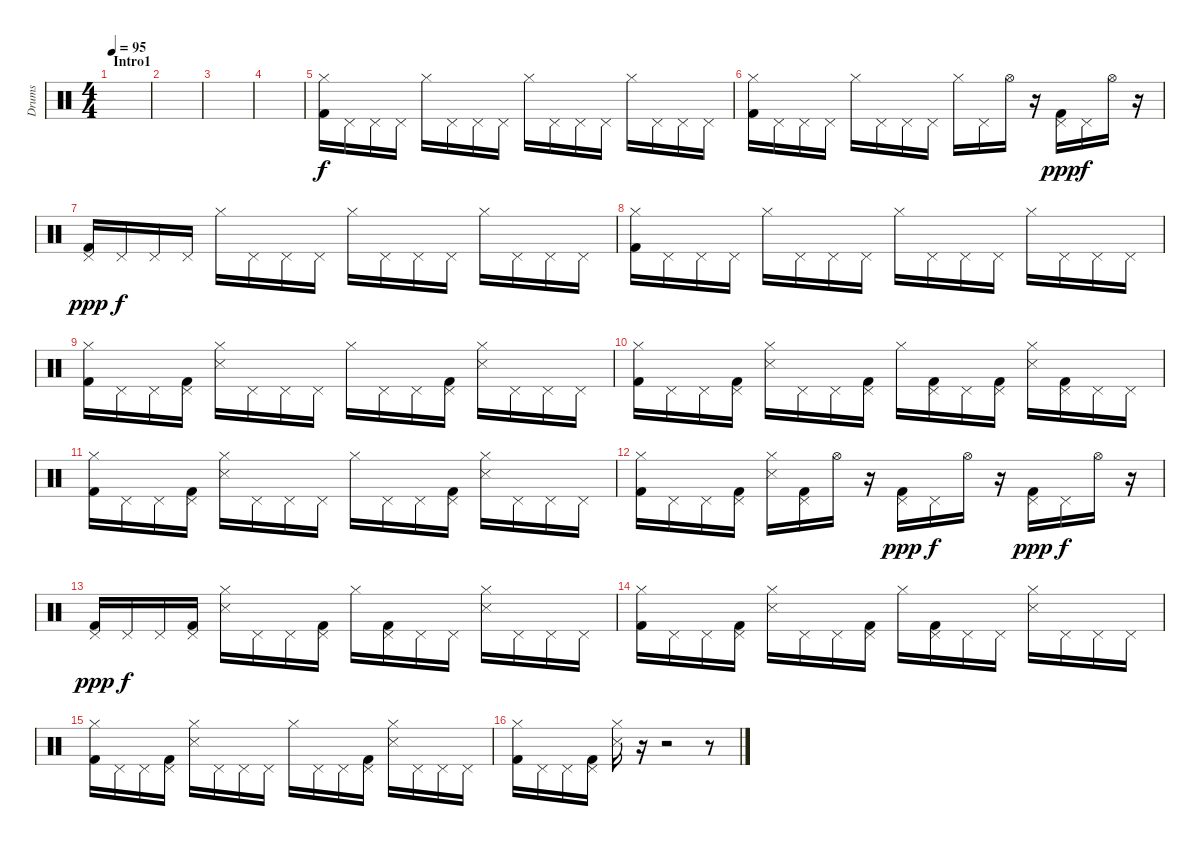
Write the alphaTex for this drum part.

\track ("Drums" "Drums") {instrument percussion}
\staff {score}
\articulation defaults
\ts (4 4)
\section ("" "Intro1")
\tempo 95
\clef neutral
\ks c
|
|
|
|
("Hi-Hat (closed)" "Kick (hit) 2").16 "Pedal Hi-Hat (hit)".16 "Pedal Hi-Hat (hit)".16 "Pedal Hi-Hat (hit)".16 "Hi-Hat (closed)".16 "Pedal Hi-Hat (hit)".16 "Pedal Hi-Hat (hit)".16 "Pedal Hi-Hat (hit)".16 "Hi-Hat (closed)".16 "Pedal Hi-Hat (hit)".16 "Pedal Hi-Hat (hit)".16 "Pedal Hi-Hat (hit)".16 "Hi-Hat (closed)".16 "Pedal Hi-Hat (hit)".16 "Pedal Hi-Hat (hit)".16 "Pedal Hi-Hat (hit)".16 |
("Hi-Hat (closed)" "Kick (hit) 2").16 "Pedal Hi-Hat (hit)".16 "Pedal Hi-Hat (hit)".16 "Pedal Hi-Hat (hit)".16 "Hi-Hat (closed)".16 "Pedal Hi-Hat (hit)".16 "Pedal Hi-Hat (hit)".16 "Pedal Hi-Hat (hit)".16 "Hi-Hat (closed)".16 "Pedal Hi-Hat (hit)".16 "Hi-Hat (open)".16 r.16 ("Pedal Hi-Hat (hit)" "Kick (hit) 2").16{dy ppp} "Pedal Hi-Hat (hit)".16{dy f} "Hi-Hat (open)".16 r.16 |
("Pedal Hi-Hat (hit)" "Kick (hit) 2").16{dy ppp} "Pedal Hi-Hat (hit)".16{dy f} "Pedal Hi-Hat (hit)".16 "Pedal Hi-Hat (hit)".16 "Hi-Hat (closed)".16 "Pedal Hi-Hat (hit)".16 "Pedal Hi-Hat (hit)".16 "Pedal Hi-Hat (hit)".16 "Hi-Hat (closed)".16 "Pedal Hi-Hat (hit)".16 "Pedal Hi-Hat (hit)".16 "Pedal Hi-Hat (hit)".16 "Hi-Hat (closed)".16 "Pedal Hi-Hat (hit)".16 "Pedal Hi-Hat (hit)".16 "Pedal Hi-Hat (hit)".16 |
("Hi-Hat (closed)" "Kick (hit) 2").16 "Pedal Hi-Hat (hit)".16 "Pedal Hi-Hat (hit)".16 "Pedal Hi-Hat (hit)".16 "Hi-Hat (closed)".16 "Pedal Hi-Hat (hit)".16 "Pedal Hi-Hat (hit)".16 "Pedal Hi-Hat (hit)".16 "Hi-Hat (closed)".16 "Pedal Hi-Hat (hit)".16 "Pedal Hi-Hat (hit)".16 "Pedal Hi-Hat (hit)".16 "Hi-Hat (closed)".16 "Pedal Hi-Hat (hit)".16 "Pedal Hi-Hat (hit)".16 "Pedal Hi-Hat (hit)".16 |
("Hi-Hat (closed)" "Kick (hit) 2").16 "Pedal Hi-Hat (hit)".16 "Pedal Hi-Hat (hit)".16 ("Pedal Hi-Hat (hit)" "Kick (hit) 2").16 ("Hi-Hat (closed)" "Snare (side stick) 3").16 "Pedal Hi-Hat (hit)".16 "Pedal Hi-Hat (hit)".16 "Pedal Hi-Hat (hit)".16 "Hi-Hat (closed)".16 "Pedal Hi-Hat (hit)".16 "Pedal Hi-Hat (hit)".16 ("Pedal Hi-Hat (hit)" "Kick (hit) 2").16 ("Hi-Hat (closed)" "Snare (side stick) 3").16 "Pedal Hi-Hat (hit)".16 "Pedal Hi-Hat (hit)".16 "Pedal Hi-Hat (hit)".16 |
("Hi-Hat (closed)" "Kick (hit) 2").16 "Pedal Hi-Hat (hit)".16 "Pedal Hi-Hat (hit)".16 ("Pedal Hi-Hat (hit)" "Kick (hit) 2").16 ("Hi-Hat (closed)" "Snare (side stick) 3").16 "Pedal Hi-Hat (hit)".16 "Pedal Hi-Hat (hit)".16 ("Pedal Hi-Hat (hit)" "Kick (hit) 2").16 "Hi-Hat (closed)".16 ("Pedal Hi-Hat (hit)" "Kick (hit) 2").16 "Pedal Hi-Hat (hit)".16 ("Pedal Hi-Hat (hit)" "Kick (hit) 2").16 ("Hi-Hat (closed)" "Snare (side stick) 3").16 ("Pedal Hi-Hat (hit)" "Kick (hit) 2").16 "Pedal Hi-Hat (hit)".16 "Pedal Hi-Hat (hit)".16 |
("Hi-Hat (closed)" "Kick (hit) 2").16 "Pedal Hi-Hat (hit)".16 "Pedal Hi-Hat (hit)".16 ("Pedal Hi-Hat (hit)" "Kick (hit) 2").16 ("Hi-Hat (closed)" "Snare (side stick) 3").16 "Pedal Hi-Hat (hit)".16 "Pedal Hi-Hat (hit)".16 "Pedal Hi-Hat (hit)".16 "Hi-Hat (closed)".16 "Pedal Hi-Hat (hit)".16 "Pedal Hi-Hat (hit)".16 ("Pedal Hi-Hat (hit)" "Kick (hit) 2").16 ("Hi-Hat (closed)" "Snare (side stick) 3").16 "Pedal Hi-Hat (hit)".16 "Pedal Hi-Hat (hit)".16 "Pedal Hi-Hat (hit)".16 |
("Hi-Hat (closed)" "Kick (hit) 2").16 "Pedal Hi-Hat (hit)".16 "Pedal Hi-Hat (hit)".16 ("Pedal Hi-Hat (hit)" "Kick (hit) 2").16 ("Hi-Hat (closed)" "Snare (side stick) 3").16 ("Pedal Hi-Hat (hit)" "Kick (hit) 2").16 "Hi-Hat (open)".16 r.16 ("Pedal Hi-Hat (hit)" "Kick (hit) 2").16{dy ppp} "Pedal Hi-Hat (hit)".16{dy f} "Hi-Hat (open)".16 r.16 ("Pedal Hi-Hat (hit)" "Kick (hit) 2").16{dy ppp} "Pedal Hi-Hat (hit)".16{dy f} "Hi-Hat (open)".16 r.16 |
("Pedal Hi-Hat (hit)" "Kick (hit) 2").16{dy ppp} "Pedal Hi-Hat (hit)".16{dy f} "Pedal Hi-Hat (hit)".16 ("Pedal Hi-Hat (hit)" "Kick (hit) 2").16 ("Hi-Hat (closed)" "Snare (side stick) 3").16 "Pedal Hi-Hat (hit)".16 "Pedal Hi-Hat (hit)".16 ("Pedal Hi-Hat (hit)" "Kick (hit) 2").16 "Hi-Hat (closed)".16 ("Pedal Hi-Hat (hit)" "Kick (hit) 2").16 "Pedal Hi-Hat (hit)".16 "Pedal Hi-Hat (hit)".16 ("Hi-Hat (closed)" "Snare (side stick) 3").16 "Pedal Hi-Hat (hit)".16 "Pedal Hi-Hat (hit)".16 "Pedal Hi-Hat (hit)".16 |
("Hi-Hat (closed)" "Kick (hit) 2").16 "Pedal Hi-Hat (hit)".16 "Pedal Hi-Hat (hit)".16 ("Pedal Hi-Hat (hit)" "Kick (hit) 2").16 ("Hi-Hat (closed)" "Snare (side stick) 3").16 "Pedal Hi-Hat (hit)".16 "Pedal Hi-Hat (hit)".16 ("Pedal Hi-Hat (hit)" "Kick (hit) 2").16 "Hi-Hat (closed)".16 ("Pedal Hi-Hat (hit)" "Kick (hit) 2").16 "Pedal Hi-Hat (hit)".16 "Pedal Hi-Hat (hit)".16 ("Hi-Hat (closed)" "Snare (side stick) 3").16 "Pedal Hi-Hat (hit)".16 "Pedal Hi-Hat (hit)".16 "Pedal Hi-Hat (hit)".16 |
("Hi-Hat (closed)" "Kick (hit) 2").16 "Pedal Hi-Hat (hit)".16 "Pedal Hi-Hat (hit)".16 ("Pedal Hi-Hat (hit)" "Kick (hit) 2").16 ("Hi-Hat (closed)" "Snare (side stick) 3").16 "Pedal Hi-Hat (hit)".16 "Pedal Hi-Hat (hit)".16 "Pedal Hi-Hat (hit)".16 "Hi-Hat (closed)".16 "Pedal Hi-Hat (hit)".16 "Pedal Hi-Hat (hit)".16 ("Pedal Hi-Hat (hit)" "Kick (hit) 2").16 ("Hi-Hat (closed)" "Snare (side stick) 3").16 "Pedal Hi-Hat (hit)".16 "Pedal Hi-Hat (hit)".16 "Pedal Hi-Hat (hit)".16 |
("Hi-Hat (closed)" "Kick (hit) 2").16 "Pedal Hi-Hat (hit)".16 "Pedal Hi-Hat (hit)".16 ("Pedal Hi-Hat (hit)" "Kick (hit) 2").16 ("Hi-Hat (closed)" "Snare (side stick) 3").16 r.16 r.2 r.8
